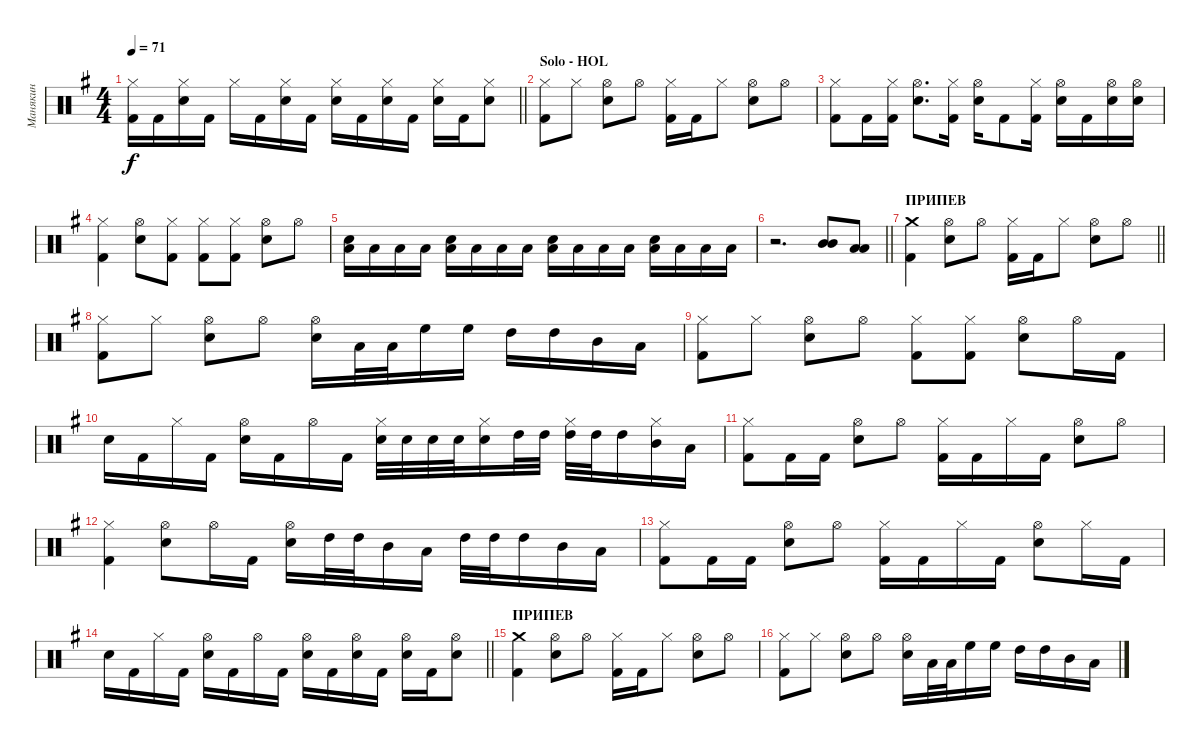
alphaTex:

\track ("Манякин" "Манякин") {instrument percussion}
\staff {score}
\articulation defaults
\ts (4 4)
\tempo 71
\clef neutral
\barLineRight lightlight
\ks eminor
("Hi-Hat (closed)" "Kick (hit) 2").16{dy f} "Kick (hit) 2".16 ("Hi-Hat (closed)" "Snare (hit) 2").16 "Kick (hit) 2".16 "Hi-Hat (closed)".16 "Kick (hit) 2".16 ("Hi-Hat (closed)" "Snare (hit) 2").16 "Kick (hit) 2".16 ("Hi-Hat (closed)" "Snare (hit) 2").16 "Kick (hit) 2".16 ("Hi-Hat (closed)" "Snare (hit) 2").16 "Kick (hit) 2".16 ("Hi-Hat (closed)" "Snare (hit) 2").16 "Kick (hit) 2".16 ("Hi-Hat (closed)" "Snare (hit) 2").8 |
\section ("" "Solo - HOL")
("Hi-Hat (closed)" "Kick (hit) 2").8 "Hi-Hat (closed)".8 ("Hi-Hat (open)" "Snare (hit) 2").8 "Hi-Hat (open)".8 ("Hi-Hat (closed)" "Kick (hit) 2").16 "Kick (hit) 2".16 "Hi-Hat (closed)".8 ("Hi-Hat (open)" "Snare (hit) 2").8 "Hi-Hat (open)".8 |
("Hi-Hat (closed)" "Kick (hit) 2").8 "Kick (hit) 2".16 ("Hi-Hat (closed)" "Kick (hit) 2").16 ("Hi-Hat (open)" "Snare (hit) 2").8{d} ("Hi-Hat (closed)" "Kick (hit) 2").16 ("Hi-Hat (open)" "Snare (hit) 2").16 "Kick (hit) 2".8 ("Hi-Hat (closed)" "Kick (hit) 2").16 ("Hi-Hat (open)" "Snare (hit) 2").16 "Kick (hit) 2".16 ("Hi-Hat (open)" "Snare (hit) 2").16 ("Hi-Hat (open)" "Snare (hit) 2").16 |
("Hi-Hat (closed)" "Kick (hit) 2").4 ("Hi-Hat (open)" "Snare (hit) 2").8 ("Hi-Hat (closed)" "Kick (hit) 2").8 ("Hi-Hat (closed)" "Kick (hit) 2").8 ("Hi-Hat (closed)" "Kick (hit) 2").8 ("Hi-Hat (open)" "Snare (hit) 2").8 "Hi-Hat (open)".8 |
("Low Tom (hit)" "Snare (hit) 2").16 "Low Tom (hit)".16 "Low Tom (hit)".16 "Low Tom (hit)".16 ("Low Tom (hit)" "Snare (hit) 2").16 "Low Tom (hit)".16 "Low Tom (hit)".16 "Low Tom (hit)".16 ("Low Tom (hit)" "Snare (hit) 2").16 "Low Tom (hit)".16 "Low Tom (hit)".16 "Low Tom (hit)".16 ("Low Tom (hit)" "Snare (hit) 2").16 "Low Tom (hit)".16 "Low Tom (hit)".16 "Low Tom (hit)".16 |
\barLineRight lightlight
r.2{d} ("Mid Tom (hit)" "Mid Tom (hit)").8 ("Low Tom (hit)" "Low Tom (hit)").8 |
\section ("" "ПРИПЕВ")
\barLineRight lightlight
("Crash medium (hit)" "Kick (hit) 2").4 ("Hi-Hat (open)" "Snare (hit) 2").8 "Hi-Hat (open)".8 ("Hi-Hat (closed)" "Kick (hit) 2").16 "Kick (hit) 2".16 "Hi-Hat (closed)".8 ("Hi-Hat (open)" "Snare (hit) 2").8 "Hi-Hat (open)".8 |
("Hi-Hat (closed)" "Kick (hit) 2").8 "Hi-Hat (closed)".8 ("Hi-Hat (open)" "Snare (hit) 2").8 "Hi-Hat (open)".8 ("Hi-Hat (open)" "Snare (hit) 2").16 "Low Tom (hit)".32 "Low Tom (hit)".32 "High Floor Tom (hit)".16 "High Floor Tom (hit)".16 "High Tom (hit)".16 "High Tom (hit)".16 "Mid Tom (hit)".16 "Low Tom (hit)".16 |
("Hi-Hat (closed)" "Kick (hit) 2").8 "Hi-Hat (closed)".8 ("Hi-Hat (open)" "Snare (hit) 2").8 "Hi-Hat (open)".8 ("Hi-Hat (closed)" "Kick (hit) 2").8 ("Hi-Hat (closed)" "Kick (hit) 2").8 ("Hi-Hat (open)" "Snare (hit) 2").8 "Hi-Hat (open)".16 "Kick (hit) 2".16 |
"Snare (hit) 2".16 "Kick (hit) 2".16 "Hi-Hat (closed)".16 "Kick (hit) 2".16 ("Hi-Hat (open)" "Snare (hit) 2").16 "Kick (hit) 2".16 "Hi-Hat (open)".16 "Kick (hit) 2".16 ("Hi-Hat (closed)" "Snare (hit) 2").32 "Snare (hit) 2".32 "Snare (hit) 2".32 "Snare (hit) 2".32 ("Hi-Hat (closed)" "Snare (hit) 2").16 "High Tom (hit)".32 "High Tom (hit)".32 ("Hi-Hat (closed)" "High Tom (hit)").32 "High Tom (hit)".32 "High Tom (hit)".16 ("Hi-Hat (closed)" "Mid Tom (hit)").16 "Low Tom (hit)".16 |
("Hi-Hat (closed)" "Kick (hit) 2").8 "Kick (hit) 2".16 "Kick (hit) 2".16 ("Hi-Hat (open)" "Snare (hit) 2").8 "Hi-Hat (open)".8 ("Hi-Hat (closed)" "Kick (hit) 2").16 "Kick (hit) 2".16 "Hi-Hat (closed)".16 "Kick (hit) 2".16 ("Hi-Hat (open)" "Snare (hit) 2").8 "Hi-Hat (open)".8 |
("Hi-Hat (closed)" "Kick (hit) 2").4 ("Hi-Hat (open)" "Snare (hit) 2").8 "Hi-Hat (open)".16 "Kick (hit) 2".16 ("Hi-Hat (open)" "Snare (hit) 2").16 "High Tom (hit)".32 "High Tom (hit)".32 "Mid Tom (hit)".16 "Low Tom (hit)".16 "High Tom (hit)".32 "High Tom (hit)".32 "High Tom (hit)".16 "Mid Tom (hit)".16 "Low Tom (hit)".16 |
("Hi-Hat (closed)" "Kick (hit) 2").8 "Kick (hit) 2".16 "Kick (hit) 2".16 ("Hi-Hat (open)" "Snare (hit) 2").8 "Hi-Hat (open)".8 ("Hi-Hat (closed)" "Kick (hit) 2").16 "Kick (hit) 2".16 "Hi-Hat (closed)".16 "Kick (hit) 2".16 ("Hi-Hat (open)" "Snare (hit) 2").8 "Hi-Hat (closed)".16 "Kick (hit) 2".16 |
\barLineRight lightlight "Snare (hit) 2".16 "Kick (hit) 2".16 "Hi-Hat (closed)".16 "Kick (hit) 2".16
("Hi-Hat (open)" "Snare (hit) 2").16 "Kick (hit) 2".16 "Hi-Hat (open)".16 "Kick (hit) 2".16 ("Hi-Hat (open)" "Snare (hit) 2").16 "Kick (hit) 2".16 ("Hi-Hat (open)" "Snare (hit) 2").16 "Kick (hit) 2".16 ("Hi-Hat (open)" "Snare (hit) 2").16 "Kick (hit) 2".16 ("Hi-Hat (open)" "Snare (hit) 2").8 |
\section ("" "ПРИПЕВ")
("Crash medium (hit)" "Kick (hit) 2").4 ("Hi-Hat (open)" "Snare (hit) 2").8 "Hi-Hat (open)".8 ("Hi-Hat (closed)" "Kick (hit) 2").16 "Kick (hit) 2".16 "Hi-Hat (closed)".8 ("Hi-Hat (open)" "Snare (hit) 2").8 "Hi-Hat (open)".8 |
("Hi-Hat (closed)" "Kick (hit) 2").8 "Hi-Hat (closed)".8 ("Hi-Hat (open)" "Snare (hit) 2").8 "Hi-Hat (open)".8 ("Hi-Hat (open)" "Snare (hit) 2").16 "Low Tom (hit)".32 "Low Tom (hit)".32 "High Floor Tom (hit)".16 "High Floor Tom (hit)".16 "High Tom (hit)".16 "High Tom (hit)".16 "Mid Tom (hit)".16 "Low Tom (hit)".16
